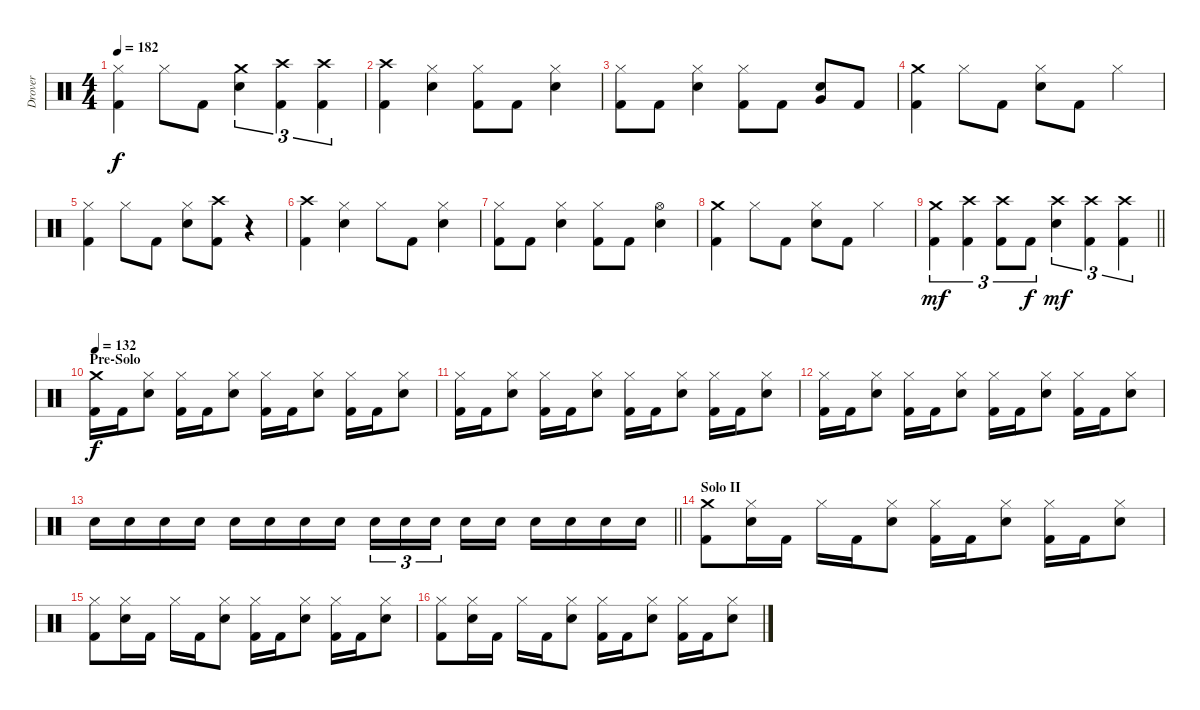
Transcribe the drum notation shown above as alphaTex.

\track ("Drover" "Drover") {instrument percussion}
\staff {score}
\articulation defaults
\ts (4 4)
\tempo 182
\clef neutral
\ks c
("Hi-Hat (closed)" "Kick (hit) 2").4{dy f} "Hi-Hat (closed)".8 "Kick (hit) 2".8 ("Crash medium (hit)" "Snare (hit) 2").4{tu (3 2)} ("Crash high (hit)" "Kick (hit) 2").4{tu (3 2)} ("Crash high (hit)" "Kick (hit) 2").4{tu (3 2)} |
("Crash high (hit)" "Kick (hit) 2").4 ("Hi-Hat (closed)" "Snare (hit) 2").4 ("Hi-Hat (closed)" "Kick (hit) 2").8 "Kick (hit) 2".8 ("Hi-Hat (closed)" "Snare (hit) 2").4 |
("Hi-Hat (closed)" "Kick (hit) 2").8 "Kick (hit) 2".8 ("Hi-Hat (closed)" "Snare (hit) 2").4 ("Hi-Hat (closed)" "Kick (hit) 2").8 "Kick (hit) 2".8 ("Very Low Tom (hit)" "Snare (hit) 2").8 "Kick (hit) 2".8 |
("Crash medium (hit)" "Kick (hit) 2").4 "Hi-Hat (closed)".8 "Kick (hit) 2".8 ("Hi-Hat (closed)" "Snare (hit) 2").8 "Kick (hit) 2".8 "Hi-Hat (closed)".4 |
("Hi-Hat (closed)" "Kick (hit) 2").4 "Hi-Hat (closed)".8 "Kick (hit) 2".8 ("Hi-Hat (closed)" "Snare (hit) 2").8 ("Crash high (hit)" "Kick (hit) 2").8 r.4 |
("Crash high (hit)" "Kick (hit) 2").4 ("Hi-Hat (closed)" "Snare (hit) 2").4 "Hi-Hat (closed)".8 "Kick (hit) 2".8 ("Hi-Hat (closed)" "Snare (hit) 2").4 |
("Hi-Hat (closed)" "Kick (hit) 2").8 "Kick (hit) 2".8 ("Hi-Hat (closed)" "Snare (hit) 2").4 ("Hi-Hat (closed)" "Kick (hit) 2").8 "Kick (hit) 2".8 ("Hi-Hat (open)" "Snare (hit) 2").4 |
("Crash medium (hit)" "Kick (hit) 2").4 "Hi-Hat (closed)".8 "Kick (hit) 2".8 ("Hi-Hat (closed)" "Snare (hit) 2").8 "Kick (hit) 2".8 "Hi-Hat (closed)".4 |
\barLineRight lightlight
("Crash medium (hit)" "Kick (hit) 2").4{tu (3 2) dy mf} ("Crash high (hit)" "Kick (hit) 2").4{tu (3 2)} ("Crash high (hit)" "Kick (hit) 2").8{tu (3 2)} "Kick (hit) 2".8{tu (3 2) dy f} ("Crash high (hit)" "Snare (hit) 2").4{tu (3 2) dy mf} ("Crash high (hit)" "Kick (hit) 2").4{tu (3 2)} ("Crash high (hit)" "Kick (hit) 2").4{tu (3 2)} |
\section ("" "Pre-Solo")
\tempo 132
("Crash medium (hit)" "Kick (hit) 2").16{dy f} "Kick (hit) 2".16 ("Hi-Hat (closed)" "Snare (hit) 2").8 ("Hi-Hat (closed)" "Kick (hit) 2").16 "Kick (hit) 2".16 ("Hi-Hat (closed)" "Snare (hit) 2").8 ("Hi-Hat (closed)" "Kick (hit) 2").16 "Kick (hit) 2".16 ("Hi-Hat (closed)" "Snare (hit) 2").8 ("Hi-Hat (closed)" "Kick (hit) 2").16 "Kick (hit) 2".16 ("Hi-Hat (closed)" "Snare (hit) 2").8 |
("Hi-Hat (closed)" "Kick (hit) 2").16 "Kick (hit) 2".16 ("Hi-Hat (closed)" "Snare (hit) 2").8 ("Hi-Hat (closed)" "Kick (hit) 2").16 "Kick (hit) 2".16 ("Hi-Hat (closed)" "Snare (hit) 2").8 ("Hi-Hat (closed)" "Kick (hit) 2").16 "Kick (hit) 2".16 ("Hi-Hat (closed)" "Snare (hit) 2").8 ("Hi-Hat (closed)" "Kick (hit) 2").16 "Kick (hit) 2".16 ("Hi-Hat (closed)" "Snare (hit) 2").8 |
("Hi-Hat (closed)" "Kick (hit) 2").16 "Kick (hit) 2".16 ("Hi-Hat (closed)" "Snare (hit) 2").8 ("Hi-Hat (closed)" "Kick (hit) 2").16 "Kick (hit) 2".16 ("Hi-Hat (closed)" "Snare (hit) 2").8 ("Hi-Hat (closed)" "Kick (hit) 2").16 "Kick (hit) 2".16 ("Hi-Hat (closed)" "Snare (hit) 2").8 ("Hi-Hat (closed)" "Kick (hit) 2").16 "Kick (hit) 2".16 ("Hi-Hat (closed)" "Snare (hit) 2").8 |
\barLineRight lightlight "Snare (hit) 2".16 "Snare (hit) 2".16 "Snare (hit) 2".16 "Snare (hit) 2".16 "Snare (hit) 2".16 "Snare (hit) 2".16 "Snare (hit) 2".16 "Snare (hit) 2".16 "Snare (hit) 2".16{tu (3 2)} "Snare (hit) 2".16{tu (3 2)} "Snare (hit) 2".16{tu (3 2) beam splitsecondary} "Snare (hit) 2".16 "Snare (hit) 2".16 "Snare (hit) 2".16 "Snare (hit) 2".16 "Snare (hit) 2".16 "Snare (hit) 2".16
|
\section ("" "Solo II")
("Crash medium (hit)" "Kick (hit) 2").8 ("Hi-Hat (closed)" "Snare (hit) 2").16 "Kick (hit) 2".16 "Hi-Hat (closed)".16 "Kick (hit) 2".16 ("Hi-Hat (closed)" "Snare (hit) 2").8 ("Hi-Hat (closed)" "Kick (hit) 2").16 "Kick (hit) 2".16 ("Hi-Hat (closed)" "Snare (hit) 2").8 ("Hi-Hat (closed)" "Kick (hit) 2").16 "Kick (hit) 2".16 ("Hi-Hat (closed)" "Snare (hit) 2").8 |
("Hi-Hat (closed)" "Kick (hit) 2").8 ("Hi-Hat (closed)" "Snare (hit) 2").16 "Kick (hit) 2".16 "Hi-Hat (closed)".16 "Kick (hit) 2".16 ("Hi-Hat (closed)" "Snare (hit) 2").8 ("Hi-Hat (closed)" "Kick (hit) 2").16 "Kick (hit) 2".16 ("Hi-Hat (closed)" "Snare (hit) 2").8 ("Hi-Hat (closed)" "Kick (hit) 2").16 "Kick (hit) 2".16 ("Hi-Hat (closed)" "Snare (hit) 2").8 |
("Hi-Hat (closed)" "Kick (hit) 2").8 ("Hi-Hat (closed)" "Snare (hit) 2").16 "Kick (hit) 2".16 "Hi-Hat (closed)".16 "Kick (hit) 2".16 ("Hi-Hat (closed)" "Snare (hit) 2").8 ("Hi-Hat (closed)" "Kick (hit) 2").16 "Kick (hit) 2".16 ("Hi-Hat (closed)" "Snare (hit) 2").8 ("Hi-Hat (closed)" "Kick (hit) 2").16 "Kick (hit) 2".16 ("Hi-Hat (closed)" "Snare (hit) 2").8
